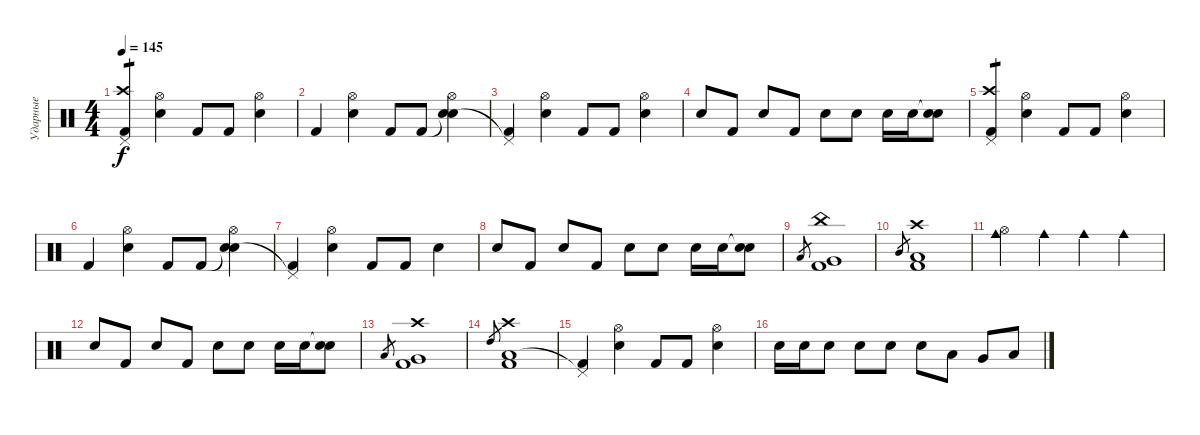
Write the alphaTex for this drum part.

\track ("Ударные" "Ударные") {instrument percussion}
\staff {score}
\articulation defaults
\ts (4 4)
\tempo 145
\clef neutral
\ks c
("Pedal Hi-Hat (hit)" "Crash high (hit)" "Kick (hit) 2").4{tp 1 dy f} ("Hi-Hat (open)" "Snare (hit) 2").4 "Kick (hit) 2".8 "Kick (hit) 2".8 ("Hi-Hat (open)" "Snare (hit) 2").4 |
"Kick (hit) 2".4 ("Hi-Hat (open)" "Snare (hit) 2").4 "Kick (hit) 2".8 "Kick (hit) 2".8 ("Snare (hit)"{t} "Hi-Hat (open)" "Snare (hit) 2").4 |
("Pedal Hi-Hat (hit)"{t} "Kick (hit) 2").4 ("Hi-Hat (open)" "Snare (hit) 2").4 "Kick (hit) 2".8 "Kick (hit) 2".8 ("Hi-Hat (open)" "Snare (hit) 2").4 |
"Snare (hit) 2".8 "Kick (hit) 2".8 "Snare (hit) 2".8 "Kick (hit) 2".8 "Snare (hit) 2".8 "Snare (hit) 2".8 "Snare (hit) 2".16 "Snare (hit) 2".16 ("Snare (hit)"{t} "Snare (hit) 2").8 |
("Pedal Hi-Hat (hit)" "Crash high (hit)" "Kick (hit) 2").4{tp 1} ("Hi-Hat (open)" "Snare (hit) 2").4 "Kick (hit) 2".8 "Kick (hit) 2".8 ("Hi-Hat (open)" "Snare (hit) 2").4 |
"Kick (hit) 2".4 ("Hi-Hat (open)" "Snare (hit) 2").4 "Kick (hit) 2".8 "Kick (hit) 2".8 ("Snare (hit)"{t} "Hi-Hat (open)" "Snare (hit) 2").4 |
("Pedal Hi-Hat (hit)"{t} "Kick (hit) 2").4 ("Hi-Hat (open)" "Snare (hit) 2").4 "Kick (hit) 2".8 "Kick (hit) 2".8 "Snare (hit) 2".4 |
"Snare (hit) 2".8 "Kick (hit) 2".8 "Snare (hit) 2".8 "Kick (hit) 2".8 "Snare (hit) 2".8 "Snare (hit) 2".8 "Snare (hit) 2".16 "Snare (hit) 2".16 ("Snare (hit)"{t} "Snare (hit) 2").8 |
"Low Floor Tom (hit)".8{gr} ("China (hit)" "Kick (hit) 2" "Very Low Tom (hit)").1 |
"Mid Tom (hit)".8{gr} ("Low Floor Tom (hit)" "Kick (hit) 2" "Crash high (hit)").1 |
("Hi-Hat (open)" "Cowbell medium (hit)").4 "Cowbell medium (hit)".4 "Cowbell medium (hit)".4 "Cowbell medium (hit)".4 |
"Snare (hit) 2".8 "Kick (hit) 2".8 "Snare (hit) 2".8 "Kick (hit) 2".8 "Snare (hit) 2".8 "Snare (hit) 2".8 "Snare (hit) 2".16 "Snare (hit) 2".16 ("Snare (hit)"{t} "Snare (hit) 2").8 |
"Low Tom (hit)".8{gr} ("Crash high (hit)" "Kick (hit) 2" "Very Low Tom (hit)").1 |
"High Tom (hit)".8{gr} ("Low Floor Tom (hit)" "Kick (hit) 2" "Crash high (hit)").1 |
("Pedal Hi-Hat (hit)"{t} "Kick (hit) 2").4 ("Hi-Hat (open)" "Snare (hit) 2").4 "Kick (hit) 2".8 "Kick (hit) 2".8 ("Hi-Hat (open)" "Snare (hit) 2").4 |
"Snare (hit) 2".16 "Snare (hit) 2".16 "Snare (hit) 2".8 "Snare (hit) 2".8 "Snare (hit) 2".8 "Snare (hit) 2".8 "Low Floor Tom (hit)".8 "Very Low Tom (hit)".8 "Low Tom (hit)".8
